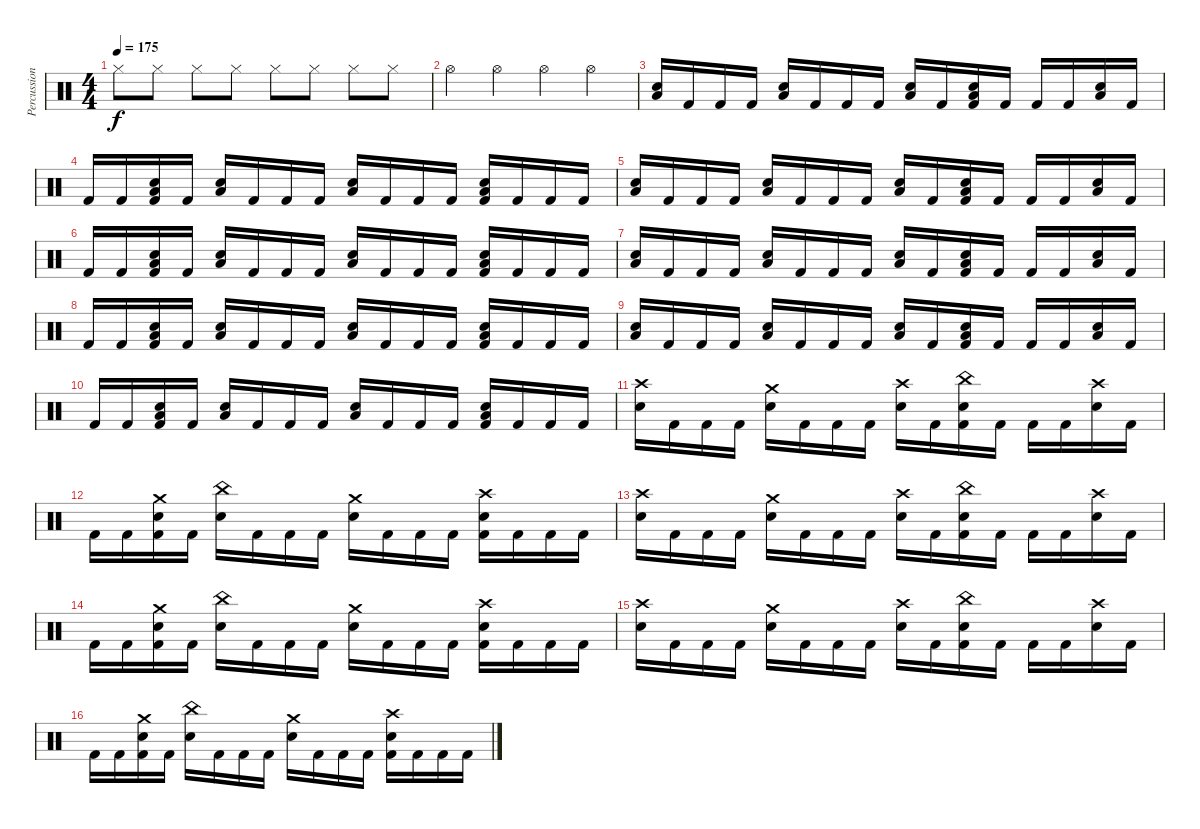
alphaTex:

\track ("Percussion" "Percussion") {instrument percussion}
\staff {score}
\articulation defaults
\ts (4 4)
\tempo 175
\clef neutral
\ks c "Hi-Hat (closed)".8{dy f} "Hi-Hat (closed)".8 "Hi-Hat (closed)".8 "Hi-Hat (closed)".8 "Hi-Hat (closed)".8 "Hi-Hat (closed)".8 "Hi-Hat (closed)".8 "Hi-Hat (closed)".8
|
"Hi-Hat (open)".4 "Hi-Hat (open)".4 "Hi-Hat (open)".4 "Hi-Hat (open)".4 |
("Low Floor Tom (hit)" "Electric Snare (hit)").16 "Kick (hit) 2".16 "Kick (hit) 2".16 "Kick (hit) 2".16 ("Low Floor Tom (hit)" "Electric Snare (hit)").16 "Kick (hit) 2".16 "Kick (hit) 2".16 "Kick (hit) 2".16 ("Low Floor Tom (hit)" "Electric Snare (hit)").16 "Kick (hit) 2".16 ("Low Floor Tom (hit)" "Electric Snare (hit)" "Kick (hit) 2").16 "Kick (hit) 2".16 "Kick (hit) 2".16 "Kick (hit) 2".16 ("Low Floor Tom (hit)" "Electric Snare (hit)").16 "Kick (hit) 2".16 |
"Kick (hit) 2".16 "Kick (hit) 2".16 ("Low Floor Tom (hit)" "Electric Snare (hit)" "Kick (hit) 2").16 "Kick (hit) 2".16 ("Low Floor Tom (hit)" "Electric Snare (hit)").16 "Kick (hit) 2".16 "Kick (hit) 2".16 "Kick (hit) 2".16 ("Low Floor Tom (hit)" "Electric Snare (hit)").16 "Kick (hit) 2".16 "Kick (hit) 2".16 "Kick (hit) 2".16 ("Low Floor Tom (hit)" "Electric Snare (hit)" "Kick (hit) 2").16 "Kick (hit) 2".16 "Kick (hit) 2".16 "Kick (hit) 2".16 |
("Low Floor Tom (hit)" "Electric Snare (hit)").16 "Kick (hit) 2".16 "Kick (hit) 2".16 "Kick (hit) 2".16 ("Low Floor Tom (hit)" "Electric Snare (hit)").16 "Kick (hit) 2".16 "Kick (hit) 2".16 "Kick (hit) 2".16 ("Low Floor Tom (hit)" "Electric Snare (hit)").16 "Kick (hit) 2".16 ("Low Floor Tom (hit)" "Electric Snare (hit)" "Kick (hit) 2").16 "Kick (hit) 2".16 "Kick (hit) 2".16 "Kick (hit) 2".16 ("Low Floor Tom (hit)" "Electric Snare (hit)").16 "Kick (hit) 2".16 |
"Kick (hit) 2".16 "Kick (hit) 2".16 ("Low Floor Tom (hit)" "Electric Snare (hit)" "Kick (hit) 2").16 "Kick (hit) 2".16 ("Low Floor Tom (hit)" "Electric Snare (hit)").16 "Kick (hit) 2".16 "Kick (hit) 2".16 "Kick (hit) 2".16 ("Low Floor Tom (hit)" "Electric Snare (hit)").16 "Kick (hit) 2".16 "Kick (hit) 2".16 "Kick (hit) 2".16 ("Low Floor Tom (hit)" "Electric Snare (hit)" "Kick (hit) 2").16 "Kick (hit) 2".16 "Kick (hit) 2".16 "Kick (hit) 2".16 |
("Low Floor Tom (hit)" "Electric Snare (hit)").16 "Kick (hit) 2".16 "Kick (hit) 2".16 "Kick (hit) 2".16 ("Low Floor Tom (hit)" "Electric Snare (hit)").16 "Kick (hit) 2".16 "Kick (hit) 2".16 "Kick (hit) 2".16 ("Low Floor Tom (hit)" "Electric Snare (hit)").16 "Kick (hit) 2".16 ("Low Floor Tom (hit)" "Electric Snare (hit)" "Kick (hit) 2").16 "Kick (hit) 2".16 "Kick (hit) 2".16 "Kick (hit) 2".16 ("Low Floor Tom (hit)" "Electric Snare (hit)").16 "Kick (hit) 2".16 |
"Kick (hit) 2".16 "Kick (hit) 2".16 ("Low Floor Tom (hit)" "Electric Snare (hit)" "Kick (hit) 2").16 "Kick (hit) 2".16 ("Low Floor Tom (hit)" "Electric Snare (hit)").16 "Kick (hit) 2".16 "Kick (hit) 2".16 "Kick (hit) 2".16 ("Low Floor Tom (hit)" "Electric Snare (hit)").16 "Kick (hit) 2".16 "Kick (hit) 2".16 "Kick (hit) 2".16 ("Low Floor Tom (hit)" "Electric Snare (hit)" "Kick (hit) 2").16 "Kick (hit) 2".16 "Kick (hit) 2".16 "Kick (hit) 2".16 |
("Low Floor Tom (hit)" "Electric Snare (hit)").16 "Kick (hit) 2".16 "Kick (hit) 2".16 "Kick (hit) 2".16 ("Low Floor Tom (hit)" "Electric Snare (hit)").16 "Kick (hit) 2".16 "Kick (hit) 2".16 "Kick (hit) 2".16 ("Low Floor Tom (hit)" "Electric Snare (hit)").16 "Kick (hit) 2".16 ("Low Floor Tom (hit)" "Electric Snare (hit)" "Kick (hit) 2").16 "Kick (hit) 2".16 "Kick (hit) 2".16 "Kick (hit) 2".16 ("Low Floor Tom (hit)" "Electric Snare (hit)").16 "Kick (hit) 2".16 |
"Kick (hit) 2".16 "Kick (hit) 2".16 ("Low Floor Tom (hit)" "Electric Snare (hit)" "Kick (hit) 2").16 "Kick (hit) 2".16 ("Low Floor Tom (hit)" "Electric Snare (hit)").16 "Kick (hit) 2".16 "Kick (hit) 2".16 "Kick (hit) 2".16 ("Low Floor Tom (hit)" "Electric Snare (hit)").16 "Kick (hit) 2".16 "Kick (hit) 2".16 "Kick (hit) 2".16 ("Low Floor Tom (hit)" "Electric Snare (hit)" "Kick (hit) 2").16 "Kick (hit) 2".16 "Kick (hit) 2".16 "Kick (hit) 2".16 |
("Crash high (hit)" "Electric Snare (hit)").16 "Kick (hit) 2".16 "Kick (hit) 2".16 "Kick (hit) 2".16 ("Crash medium (hit)" "Electric Snare (hit)").16 "Kick (hit) 2".16 "Kick (hit) 2".16 "Kick (hit) 2".16 ("Crash high (hit)" "Electric Snare (hit)").16 "Kick (hit) 2".16 ("China (hit)" "Electric Snare (hit)" "Kick (hit) 2").16 "Kick (hit) 2".16 "Kick (hit) 2".16 "Kick (hit) 2".16 ("Crash high (hit)" "Electric Snare (hit)").16 "Kick (hit) 2".16 |
"Kick (hit) 2".16 "Kick (hit) 2".16 ("Crash medium (hit)" "Electric Snare (hit)" "Kick (hit) 2").16 "Kick (hit) 2".16 ("China (hit)" "Electric Snare (hit)").16 "Kick (hit) 2".16 "Kick (hit) 2".16 "Kick (hit) 2".16 ("Crash medium (hit)" "Electric Snare (hit)").16 "Kick (hit) 2".16 "Kick (hit) 2".16 "Kick (hit) 2".16 ("Crash high (hit)" "Electric Snare (hit)" "Kick (hit) 2").16 "Kick (hit) 2".16 "Kick (hit) 2".16 "Kick (hit) 2".16 |
("Crash high (hit)" "Electric Snare (hit)").16 "Kick (hit) 2".16 "Kick (hit) 2".16 "Kick (hit) 2".16 ("Crash medium (hit)" "Electric Snare (hit)").16 "Kick (hit) 2".16 "Kick (hit) 2".16 "Kick (hit) 2".16 ("Crash high (hit)" "Electric Snare (hit)").16 "Kick (hit) 2".16 ("China (hit)" "Electric Snare (hit)" "Kick (hit) 2").16 "Kick (hit) 2".16 "Kick (hit) 2".16 "Kick (hit) 2".16 ("Crash high (hit)" "Electric Snare (hit)").16 "Kick (hit) 2".16 |
"Kick (hit) 2".16 "Kick (hit) 2".16 ("Crash medium (hit)" "Electric Snare (hit)" "Kick (hit) 2").16 "Kick (hit) 2".16 ("China (hit)" "Electric Snare (hit)").16 "Kick (hit) 2".16 "Kick (hit) 2".16 "Kick (hit) 2".16 ("Crash medium (hit)" "Electric Snare (hit)").16 "Kick (hit) 2".16 "Kick (hit) 2".16 "Kick (hit) 2".16 ("Crash high (hit)" "Electric Snare (hit)" "Kick (hit) 2").16 "Kick (hit) 2".16 "Kick (hit) 2".16 "Kick (hit) 2".16 |
("Crash high (hit)" "Electric Snare (hit)").16 "Kick (hit) 2".16 "Kick (hit) 2".16 "Kick (hit) 2".16 ("Crash medium (hit)" "Electric Snare (hit)").16 "Kick (hit) 2".16 "Kick (hit) 2".16 "Kick (hit) 2".16 ("Crash high (hit)" "Electric Snare (hit)").16 "Kick (hit) 2".16 ("China (hit)" "Electric Snare (hit)" "Kick (hit) 2").16 "Kick (hit) 2".16 "Kick (hit) 2".16 "Kick (hit) 2".16 ("Crash high (hit)" "Electric Snare (hit)").16 "Kick (hit) 2".16 |
"Kick (hit) 2".16 "Kick (hit) 2".16 ("Crash medium (hit)" "Electric Snare (hit)" "Kick (hit) 2").16 "Kick (hit) 2".16 ("China (hit)" "Electric Snare (hit)").16 "Kick (hit) 2".16 "Kick (hit) 2".16 "Kick (hit) 2".16 ("Crash medium (hit)" "Electric Snare (hit)").16 "Kick (hit) 2".16 "Kick (hit) 2".16 "Kick (hit) 2".16 ("Crash high (hit)" "Electric Snare (hit)" "Kick (hit) 2").16 "Kick (hit) 2".16 "Kick (hit) 2".16 "Kick (hit) 2".16
